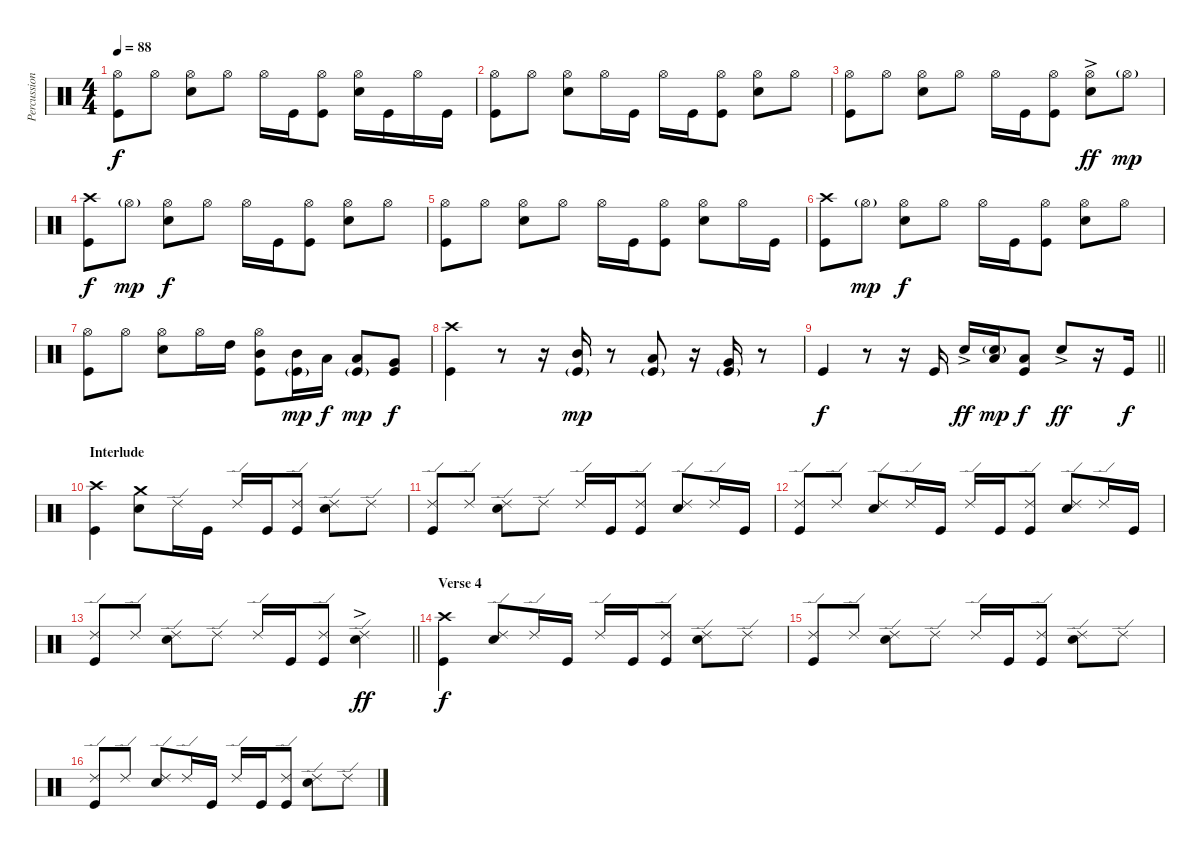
\track ("Percussion" "Percussion") {instrument percussion}
\staff {score}
\articulation defaults
\ts (4 4)
\tempo 88
\clef neutral
\ks c
("Hi-Hat (open)" "Kick (hit)").8{dy f} "Hi-Hat (open)".8 ("Hi-Hat (open)" "Snare (hit) 2").8 "Hi-Hat (open)".8 "Hi-Hat (open)".16 "Kick (hit)".16 ("Hi-Hat (open)" "Kick (hit)").8 ("Hi-Hat (open)" "Snare (hit) 2").16 "Kick (hit)".16 "Hi-Hat (open)".16 "Kick (hit)".16 |
("Hi-Hat (open)" "Kick (hit)").8 "Hi-Hat (open)".8 ("Hi-Hat (open)" "Snare (hit) 2").8 "Hi-Hat (open)".16 "Kick (hit)".16 "Hi-Hat (open)".16 "Kick (hit)".16 ("Hi-Hat (open)" "Kick (hit)").8 ("Hi-Hat (open)" "Snare (hit) 2").8 "Hi-Hat (open)".8 |
("Hi-Hat (open)" "Kick (hit)").8 "Hi-Hat (open)".8 ("Hi-Hat (open)" "Snare (hit) 2").8 "Hi-Hat (open)".8 "Hi-Hat (open)".16 "Kick (hit)".16 ("Hi-Hat (open)" "Kick (hit)").8 ("Hi-Hat (open)" "Snare (hit) 2"{ac}).8{dy ff} "Hi-Hat (open)"{g}.8{dy mp} |
("Crash high (hit)" "Kick (hit)").8{dy f} "Hi-Hat (open)"{g}.8{dy mp} ("Hi-Hat (open)" "Snare (hit) 2").8{dy f} "Hi-Hat (open)".8 "Hi-Hat (open)".16 "Kick (hit)".16 ("Hi-Hat (open)" "Kick (hit)").8 ("Hi-Hat (open)" "Snare (hit) 2").8 "Hi-Hat (open)".8 |
("Hi-Hat (open)" "Kick (hit)").8 "Hi-Hat (open)".8 ("Hi-Hat (open)" "Snare (hit) 2").8 "Hi-Hat (open)".8 "Hi-Hat (open)".16 "Kick (hit)".16 ("Hi-Hat (open)" "Kick (hit)").8 ("Hi-Hat (open)" "Snare (hit) 2").8 "Hi-Hat (open)".16 "Kick (hit)".16 |
("Crash high (hit)" "Kick (hit)").8 "Hi-Hat (open)"{g}.8{dy mp} ("Hi-Hat (open)" "Snare (hit) 2").8{dy f} "Hi-Hat (open)".8 "Hi-Hat (open)".16 "Kick (hit)".16 ("Hi-Hat (open)" "Kick (hit)").8 ("Hi-Hat (open)" "Snare (hit) 2").8 "Hi-Hat (open)".8 |
("Hi-Hat (open)" "Kick (hit)").8 "Hi-Hat (open)".8 ("Hi-Hat (open)" "Snare (hit) 2").8 "Hi-Hat (open)".16 "High Tom (hit)".16 ("Hi-Hat (open)" "Mid Tom (hit)" "Kick (hit)").8 ("Mid Tom (hit)" "Kick (hit)"{g}).16{dy mp} "Low Tom (hit)".16{dy f} ("Low Tom (hit)" "Kick (hit)"{g}).8{dy mp} ("Very Low Tom (hit)" "Kick (hit)").8{dy f} |
("Crash high (hit)" "Kick (hit)").4 r.8 r.16 ("Mid Tom (hit)" "Kick (hit)"{g}).16{dy mp} r.8 ("Low Tom (hit)" "Kick (hit)"{g}).8 r.16 ("Very Low Tom (hit)" "Kick (hit)"{g}).16 r.8 |
\barLineRight lightlight "Kick (hit)".4{dy f}
r.8 r.16 "Kick (hit)".16 "Snare (hit) 2"{ac}.16{dy ff} ("Low Tom (hit)" "Snare (hit) 2"{g}).16{dy mp} ("Low Tom (hit)" "Kick (hit)").8{dy f} "Snare (hit) 2"{ac}.8{dy ff} r.16 "Kick (hit)".16{dy f} |
\section ("" "Interlude")
("Crash high (hit)" "Kick (hit)").4 ("Crash medium (hit)" "Snare (hit) 2").8 "Ride (edge) 2".16 "Kick (hit)".16 "Ride (edge) 2".16 "Kick (hit)".16 ("Ride (edge) 2" "Kick (hit)").8 ("Ride (edge) 2" "Snare (hit) 2").8 "Ride (edge) 2".8 |
("Ride (edge) 2" "Kick (hit)").8 "Ride (edge) 2".8 ("Ride (edge) 2" "Snare (hit) 2").8 "Ride (edge) 2".8 "Ride (edge) 2".16 "Kick (hit)".16 ("Ride (edge) 2" "Kick (hit)").8 ("Ride (edge) 2" "Snare (hit) 2").8 "Ride (edge) 2".16 "Kick (hit)".16 |
("Ride (edge) 2" "Kick (hit)").8 "Ride (edge) 2".8 ("Ride (edge) 2" "Snare (hit) 2").8 "Ride (edge) 2".16 "Kick (hit)".16 "Ride (edge) 2".16 "Kick (hit)".16 ("Ride (edge) 2" "Kick (hit)").8 ("Ride (edge) 2" "Snare (hit) 2").8 "Ride (edge) 2".16 "Kick (hit)".16 |
\barLineRight lightlight
("Ride (edge) 2" "Kick (hit)").8 "Ride (edge) 2".8 ("Ride (edge) 2" "Snare (hit) 2").8 "Ride (edge) 2".8 "Ride (edge) 2".16 "Kick (hit)".16 ("Ride (edge) 2" "Kick (hit)").8 ("Ride (edge) 2" "Snare (hit) 2"{ac}).4{dy ff} |
\section ("" "Verse 4")
("Crash high (hit)" "Kick (hit)").4{dy f} ("Ride (edge) 2" "Snare (hit) 2").8 "Ride (edge) 2".16 "Kick (hit)".16 "Ride (edge) 2".16 "Kick (hit)".16 ("Ride (edge) 2" "Kick (hit)").8 ("Ride (edge) 2" "Snare (hit) 2").8 "Ride (edge) 2".8 |
("Ride (edge) 2" "Kick (hit)").8 "Ride (edge) 2".8 ("Ride (edge) 2" "Snare (hit) 2").8 "Ride (edge) 2".8 "Ride (edge) 2".16 "Kick (hit)".16 ("Ride (edge) 2" "Kick (hit)").8 ("Ride (edge) 2" "Snare (hit) 2").8 "Ride (edge) 2".8 |
("Ride (edge) 2" "Kick (hit)").8 "Ride (edge) 2".8 ("Ride (edge) 2" "Snare (hit) 2").8 "Ride (edge) 2".16 "Kick (hit)".16 "Ride (edge) 2".16 "Kick (hit)".16 ("Ride (edge) 2" "Kick (hit)").8 ("Ride (edge) 2" "Snare (hit) 2").8 "Ride (edge) 2".8
